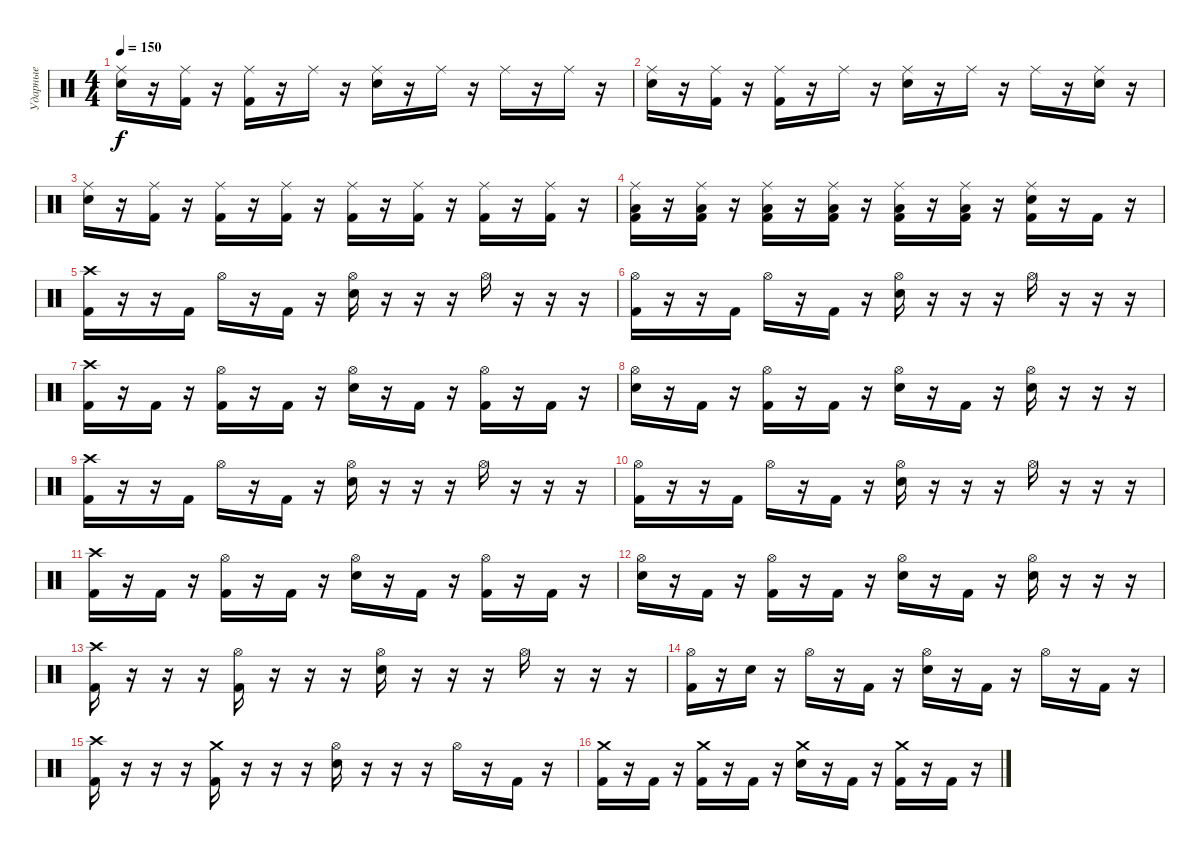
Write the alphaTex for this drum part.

\track ("Ударные" "Ударные") {instrument percussion}
\staff {score}
\articulation defaults
\ts (4 4)
\tempo 150
\clef neutral
\ks c
("Ride (middle)" "Electric Snare (hit)").16{dy f} r.16 ("Ride (middle)" "Kick (hit) 2").16 r.16 ("Ride (middle)" "Kick (hit) 2").16 r.16 "Ride (middle)".16 r.16 ("Ride (middle)" "Electric Snare (hit)").16 r.16 "Ride (middle)".16 r.16 "Ride (middle)".16 r.16 "Ride (middle)".16 r.16 |
("Ride (middle)" "Electric Snare (hit)").16 r.16 ("Ride (middle)" "Kick (hit) 2").16 r.16 ("Ride (middle)" "Kick (hit) 2").16 r.16 "Ride (middle)".16 r.16 ("Ride (middle)" "Electric Snare (hit)").16 r.16 "Ride (middle)".16 r.16 "Ride (middle)".16 r.16 ("Ride (middle)" "Electric Snare (hit)").16 r.16 |
("Ride (middle)" "Electric Snare (hit)").16 r.16 ("Ride (middle)" "Kick (hit) 2").16 r.16 ("Ride (middle)" "Kick (hit) 2").16 r.16 ("Ride (middle)" "Kick (hit) 2").16 r.16 ("Ride (middle)" "Kick (hit) 2").16 r.16 ("Ride (middle)" "Kick (hit) 2").16 r.16 ("Ride (middle)" "Kick (hit) 2").16 r.16 ("Ride (middle)" "Kick (hit) 2").16 r.16 |
("Ride (middle)" "Low Floor Tom (hit)" "Kick (hit) 2").16 r.16 ("Ride (middle)" "Low Floor Tom (hit)" "Kick (hit) 2").16 r.16 ("Ride (middle)" "Low Floor Tom (hit)" "Kick (hit) 2").16 r.16 ("Ride (middle)" "Low Floor Tom (hit)" "Kick (hit) 2").16 r.16 ("Ride (middle)" "Low Floor Tom (hit)" "Kick (hit) 2").16 r.16 ("Ride (middle)" "Low Floor Tom (hit)" "Kick (hit) 2").16 r.16 ("Ride (middle)" "Electric Snare (hit)" "Kick (hit) 2").16 r.16 "Kick (hit) 2".16 r.16 |
("Crash high (hit)" "Kick (hit) 2").16 r.16 r.16 "Kick (hit) 2".16 "Hi-Hat (open)".16 r.16 "Kick (hit) 2".16 r.16 ("Hi-Hat (open)" "Electric Snare (hit)").16 r.16 r.16 r.16 "Hi-Hat (open)".16 r.16 r.16 r.16 |
("Hi-Hat (open)" "Kick (hit) 2").16 r.16 r.16 "Kick (hit) 2".16 "Hi-Hat (open)".16 r.16 "Kick (hit) 2".16 r.16 ("Hi-Hat (open)" "Electric Snare (hit)").16 r.16 r.16 r.16 "Hi-Hat (open)".16 r.16 r.16 r.16 |
("Crash high (hit)" "Kick (hit) 2").16 r.16 "Kick (hit) 2".16 r.16 ("Hi-Hat (open)" "Kick (hit) 2").16 r.16 "Kick (hit) 2".16 r.16 ("Hi-Hat (open)" "Electric Snare (hit)").16 r.16 "Kick (hit) 2".16 r.16 ("Hi-Hat (open)" "Kick (hit) 2").16 r.16 "Kick (hit) 2".16 r.16 |
("Hi-Hat (open)" "Electric Snare (hit)").16 r.16 "Kick (hit) 2".16 r.16 ("Hi-Hat (open)" "Kick (hit) 2").16 r.16 "Kick (hit) 2".16 r.16 ("Hi-Hat (open)" "Electric Snare (hit)").16 r.16 "Kick (hit) 2".16 r.16 ("Hi-Hat (open)" "Electric Snare (hit)").16 r.16 r.16 r.16 |
("Crash high (hit)" "Kick (hit) 2").16 r.16 r.16 "Kick (hit) 2".16 "Hi-Hat (open)".16 r.16 "Kick (hit) 2".16 r.16 ("Hi-Hat (open)" "Electric Snare (hit)").16 r.16 r.16 r.16 "Hi-Hat (open)".16 r.16 r.16 r.16 |
("Hi-Hat (open)" "Kick (hit) 2").16 r.16 r.16 "Kick (hit) 2".16 "Hi-Hat (open)".16 r.16 "Kick (hit) 2".16 r.16 ("Hi-Hat (open)" "Electric Snare (hit)").16 r.16 r.16 r.16 "Hi-Hat (open)".16 r.16 r.16 r.16 |
("Crash high (hit)" "Kick (hit) 2").16 r.16 "Kick (hit) 2".16 r.16 ("Hi-Hat (open)" "Kick (hit) 2").16 r.16 "Kick (hit) 2".16 r.16 ("Hi-Hat (open)" "Electric Snare (hit)").16 r.16 "Kick (hit) 2".16 r.16 ("Hi-Hat (open)" "Kick (hit) 2").16 r.16 "Kick (hit) 2".16 r.16 |
("Hi-Hat (open)" "Electric Snare (hit)").16 r.16 "Kick (hit) 2".16 r.16 ("Hi-Hat (open)" "Kick (hit) 2").16 r.16 "Kick (hit) 2".16 r.16 ("Hi-Hat (open)" "Electric Snare (hit)").16 r.16 "Kick (hit) 2".16 r.16 ("Hi-Hat (open)" "Electric Snare (hit)").16 r.16 r.16 r.16 |
("Crash high (hit)" "Kick (hit) 2").16 r.16 r.16 r.16 ("Hi-Hat (open)" "Kick (hit) 2").16 r.16 r.16 r.16 ("Hi-Hat (open)" "Electric Snare (hit)").16 r.16 r.16 r.16 "Hi-Hat (open)".16 r.16 r.16 r.16 |
("Hi-Hat (open)" "Kick (hit) 2").16 r.16 "Electric Snare (hit)".16 r.16 "Hi-Hat (open)".16 r.16 "Kick (hit) 2".16 r.16 ("Hi-Hat (open)" "Electric Snare (hit)").16 r.16 "Kick (hit) 2".16 r.16 "Hi-Hat (open)".16 r.16 "Kick (hit) 2".16 r.16 |
("Crash high (hit)" "Kick (hit) 2").16 r.16 r.16 r.16 ("Crash medium (hit)" "Kick (hit) 2").16 r.16 r.16 r.16 ("Hi-Hat (open)" "Electric Snare (hit)").16 r.16 r.16 r.16 "Hi-Hat (open)".16 r.16 "Kick (hit) 2".16 r.16 |
("Crash medium (hit)" "Kick (hit) 2").16 r.16 "Kick (hit) 2".16 r.16 ("Crash medium (hit)" "Kick (hit) 2").16 r.16 "Kick (hit) 2".16 r.16 ("Crash medium (hit)" "Electric Snare (hit)").16 r.16 "Kick (hit) 2".16 r.16 ("Crash medium (hit)" "Kick (hit) 2").16 r.16 "Kick (hit) 2".16 r.16
